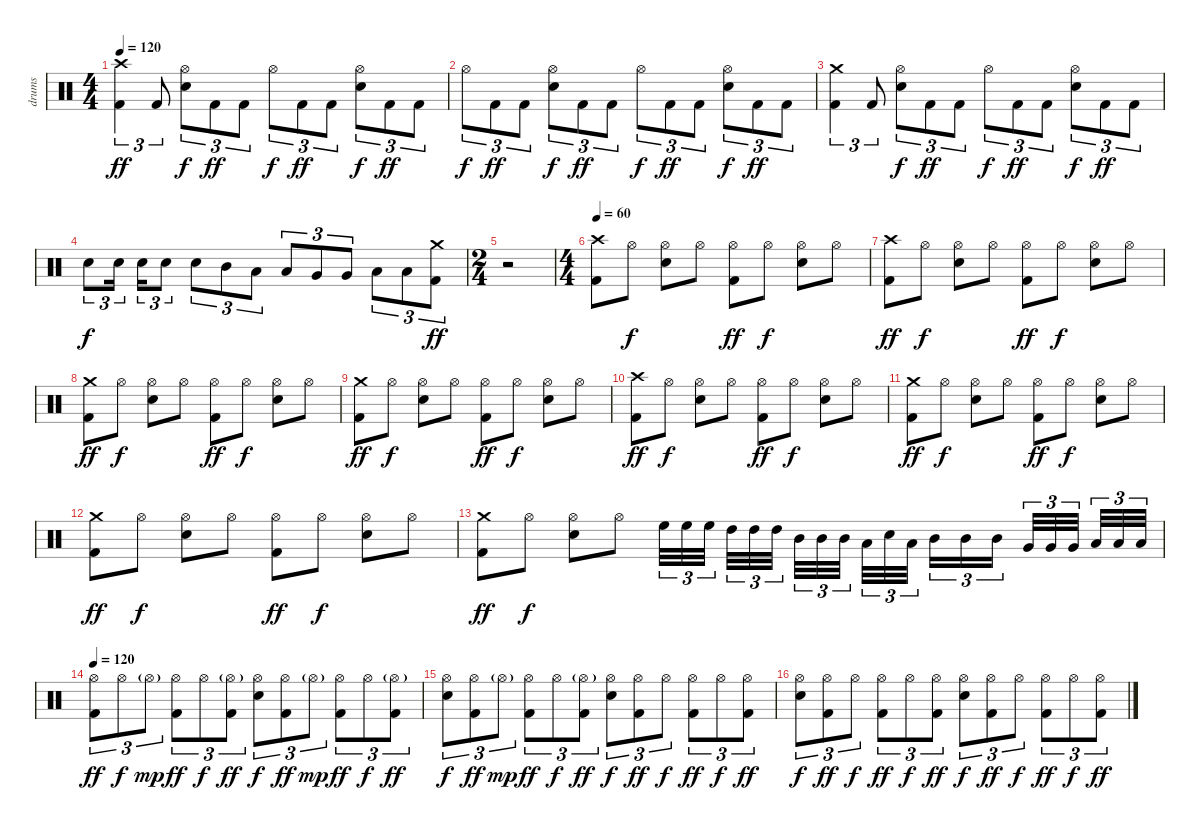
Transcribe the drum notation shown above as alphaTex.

\track ("drums" "drums") {instrument percussion}
\staff {score}
\articulation defaults
\ts (4 4)
\tempo 120
\clef neutral
\ks c
("Crash high (hit)" "Kick (hit) 2").4{tu (3 2) dy ff} "Kick (hit) 2".8{tu (3 2)} ("Hi-Hat (open)" "Electric Snare (hit)").8{tu (3 2) dy f} "Kick (hit) 2".8{tu (3 2) dy ff} "Kick (hit) 2".8{tu (3 2)} "Hi-Hat (open)".8{tu (3 2) dy f} "Kick (hit) 2".8{tu (3 2) dy ff} "Kick (hit) 2".8{tu (3 2)} ("Hi-Hat (open)" "Electric Snare (hit)").8{tu (3 2) dy f} "Kick (hit) 2".8{tu (3 2) dy ff} "Kick (hit) 2".8{tu (3 2)} |
"Hi-Hat (open)".8{tu (3 2) dy f} "Kick (hit) 2".8{tu (3 2) dy ff} "Kick (hit) 2".8{tu (3 2)} ("Hi-Hat (open)" "Electric Snare (hit)").8{tu (3 2) dy f} "Kick (hit) 2".8{tu (3 2) dy ff} "Kick (hit) 2".8{tu (3 2)} "Hi-Hat (open)".8{tu (3 2) dy f} "Kick (hit) 2".8{tu (3 2) dy ff} "Kick (hit) 2".8{tu (3 2)} ("Hi-Hat (open)" "Electric Snare (hit)").8{tu (3 2) dy f} "Kick (hit) 2".8{tu (3 2) dy ff} "Kick (hit) 2".8{tu (3 2)} |
("Crash medium (hit)" "Kick (hit) 2").4{tu (3 2)} "Kick (hit) 2".8{tu (3 2)} ("Hi-Hat (open)" "Electric Snare (hit)").8{tu (3 2) dy f} "Kick (hit) 2".8{tu (3 2) dy ff} "Kick (hit) 2".8{tu (3 2)} "Hi-Hat (open)".8{tu (3 2) dy f} "Kick (hit) 2".8{tu (3 2) dy ff} "Kick (hit) 2".8{tu (3 2)} ("Hi-Hat (open)" "Electric Snare (hit)").8{tu (3 2) dy f} "Kick (hit) 2".8{tu (3 2) dy ff} "Kick (hit) 2".8{tu (3 2)} |
"Electric Snare (hit)".8{tu (3 2) dy f} "Electric Snare (hit)".16{tu (3 2)} "Electric Snare (hit)".16{tu (3 2)} "Electric Snare (hit)".8{tu (3 2)} "Electric Snare (hit)".8{tu (3 2)} "Mid Tom (hit)".8{tu (3 2)} "Low Tom (hit)".8{tu (3 2)} "Low Tom (hit)".8{tu (3 2)} "Very Low Tom (hit)".8{tu (3 2)} "Very Low Tom (hit)".8{tu (3 2)} "Low Floor Tom (hit)".8{tu (3 2)} "Low Floor Tom (hit)".8{tu (3 2)} ("Crash medium (hit)" "Kick (hit) 2").8{tu (3 2) dy ff} |
\ts (2 4)
r.2 |
\ts (4 4)
\tempo 60
("Crash high (hit)" "Kick (hit) 2").8 "Hi-Hat (open)".8{dy f} ("Hi-Hat (open)" "Electric Snare (hit)").8 "Hi-Hat (open)".8 ("Hi-Hat (open)" "Kick (hit) 2").8{dy ff} "Hi-Hat (open)".8{dy f} ("Hi-Hat (open)" "Electric Snare (hit)").8 "Hi-Hat (open)".8 |
("Crash high (hit)" "Kick (hit) 2").8{dy ff} "Hi-Hat (open)".8{dy f} ("Hi-Hat (open)" "Electric Snare (hit)").8 "Hi-Hat (open)".8 ("Hi-Hat (open)" "Kick (hit) 2").8{dy ff} "Hi-Hat (open)".8{dy f} ("Hi-Hat (open)" "Electric Snare (hit)").8 "Hi-Hat (open)".8 |
("Crash medium (hit)" "Kick (hit) 2").8{dy ff} "Hi-Hat (open)".8{dy f} ("Hi-Hat (open)" "Electric Snare (hit)").8 "Hi-Hat (open)".8 ("Hi-Hat (open)" "Kick (hit) 2").8{dy ff} "Hi-Hat (open)".8{dy f} ("Hi-Hat (open)" "Electric Snare (hit)").8 "Hi-Hat (open)".8 |
("Crash medium (hit)" "Kick (hit) 2").8{dy ff} "Hi-Hat (open)".8{dy f} ("Hi-Hat (open)" "Electric Snare (hit)").8 "Hi-Hat (open)".8 ("Hi-Hat (open)" "Kick (hit) 2").8{dy ff} "Hi-Hat (open)".8{dy f} ("Hi-Hat (open)" "Electric Snare (hit)").8 "Hi-Hat (open)".8 |
("Crash high (hit)" "Kick (hit) 2").8{dy ff} "Hi-Hat (open)".8{dy f} ("Hi-Hat (open)" "Electric Snare (hit)").8 "Hi-Hat (open)".8 ("Hi-Hat (open)" "Kick (hit) 2").8{dy ff} "Hi-Hat (open)".8{dy f} ("Hi-Hat (open)" "Electric Snare (hit)").8 "Hi-Hat (open)".8 |
("Crash medium (hit)" "Kick (hit) 2").8{dy ff} "Hi-Hat (open)".8{dy f} ("Hi-Hat (open)" "Electric Snare (hit)").8 "Hi-Hat (open)".8 ("Hi-Hat (open)" "Kick (hit) 2").8{dy ff} "Hi-Hat (open)".8{dy f} ("Hi-Hat (open)" "Electric Snare (hit)").8 "Hi-Hat (open)".8 |
("Crash medium (hit)" "Kick (hit) 2").8{dy ff} "Hi-Hat (open)".8{dy f} ("Hi-Hat (open)" "Electric Snare (hit)").8 "Hi-Hat (open)".8 ("Hi-Hat (open)" "Kick (hit) 2").8{dy ff} "Hi-Hat (open)".8{dy f} ("Hi-Hat (open)" "Electric Snare (hit)").8 "Hi-Hat (open)".8 |
("Crash medium (hit)" "Kick (hit) 2").8{dy ff} "Hi-Hat (open)".8{dy f} ("Hi-Hat (open)" "Electric Snare (hit)").8 "Hi-Hat (open)".8 "High Floor Tom (hit)".32{tu (3 2)} "High Floor Tom (hit)".32{tu (3 2)} "High Floor Tom (hit)".32{tu (3 2)} "High Tom (hit)".32{tu (3 2)} "High Tom (hit)".32{tu (3 2)} "High Tom (hit)".32{tu (3 2)} "Mid Tom (hit)".32{tu (3 2)} "Mid Tom (hit)".32{tu (3 2)} "Mid Tom (hit)".32{tu (3 2)} "Low Tom (hit)".32{tu (3 2)} "Electric Snare (hit)".32{tu (3 2)} "Low Tom (hit)".32{tu (3 2)} "Mid Tom (hit)".16{tu (3 2)} "Mid Tom (hit)".16{tu (3 2)} "Mid Tom (hit)".16{tu (3 2)} "Very Low Tom (hit)".32{tu (3 2)} "Very Low Tom (hit)".32{tu (3 2)} "Very Low Tom (hit)".32{tu (3 2)} "Low Floor Tom (hit)".32{tu (3 2)} "Low Floor Tom (hit)".32{tu (3 2)} "Low Floor Tom (hit)".32{tu (3 2)} |
\tempo 120
("Hi-Hat (open)" "Kick (hit) 2").8{tu (3 2) dy ff} "Hi-Hat (open)".8{tu (3 2) dy f} "Hi-Hat (open)"{g}.8{tu (3 2) dy mp} ("Hi-Hat (open)" "Kick (hit) 2").8{tu (3 2) dy ff} "Hi-Hat (open)".8{tu (3 2) dy f} ("Hi-Hat (open)"{g} "Kick (hit) 2").8{tu (3 2) dy ff} ("Hi-Hat (open)" "Electric Snare (hit)").8{tu (3 2) dy f} ("Hi-Hat (open)" "Kick (hit) 2").8{tu (3 2) dy ff} "Hi-Hat (open)"{g}.8{tu (3 2) dy mp} ("Hi-Hat (open)" "Kick (hit) 2").8{tu (3 2) dy ff} "Hi-Hat (open)".8{tu (3 2) dy f} ("Hi-Hat (open)"{g} "Kick (hit) 2").8{tu (3 2) dy ff} |
("Hi-Hat (open)" "Electric Snare (hit)").8{tu (3 2) dy f} ("Hi-Hat (open)" "Kick (hit) 2").8{tu (3 2) dy ff} "Hi-Hat (open)"{g}.8{tu (3 2) dy mp} ("Hi-Hat (open)" "Kick (hit) 2").8{tu (3 2) dy ff} "Hi-Hat (open)".8{tu (3 2) dy f} ("Hi-Hat (open)"{g} "Kick (hit) 2").8{tu (3 2) dy ff} ("Hi-Hat (open)" "Electric Snare (hit)").8{tu (3 2) dy f} ("Hi-Hat (open)" "Kick (hit) 2").8{tu (3 2) dy ff} "Hi-Hat (open)".8{tu (3 2) dy f} ("Hi-Hat (open)" "Kick (hit) 2").8{tu (3 2) dy ff} "Hi-Hat (open)".8{tu (3 2) dy f} ("Hi-Hat (open)" "Kick (hit) 2").8{tu (3 2) dy ff} |
("Hi-Hat (open)" "Electric Snare (hit)").8{tu (3 2) dy f} ("Hi-Hat (open)" "Kick (hit) 2").8{tu (3 2) dy ff} "Hi-Hat (open)".8{tu (3 2) dy f} ("Hi-Hat (open)" "Kick (hit) 2").8{tu (3 2) dy ff} "Hi-Hat (open)".8{tu (3 2) dy f} ("Hi-Hat (open)" "Kick (hit) 2").8{tu (3 2) dy ff} ("Hi-Hat (open)" "Electric Snare (hit)").8{tu (3 2) dy f} ("Hi-Hat (open)" "Kick (hit) 2").8{tu (3 2) dy ff} "Hi-Hat (open)".8{tu (3 2) dy f} ("Hi-Hat (open)" "Kick (hit) 2").8{tu (3 2) dy ff} "Hi-Hat (open)".8{tu (3 2) dy f} ("Hi-Hat (open)" "Kick (hit) 2").8{tu (3 2) dy ff}
